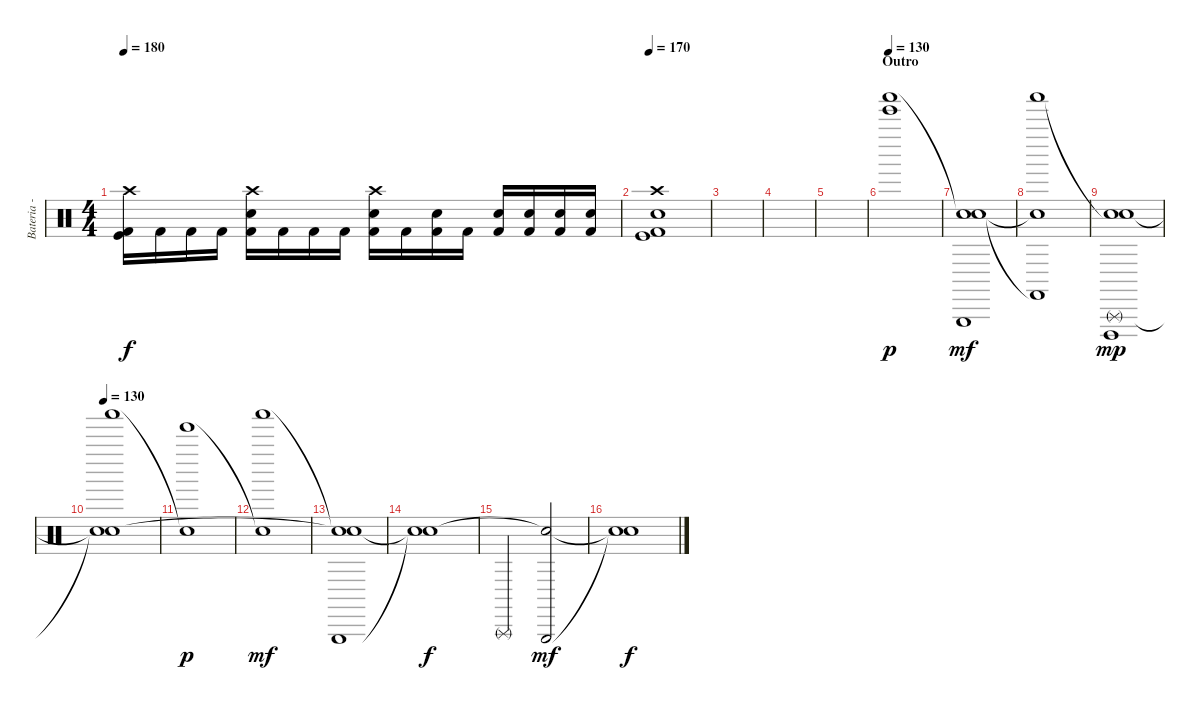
\track ("Bateria - Drums" "Bateria - ") {instrument percussion}
\staff {score}
\articulation defaults
\ts (4 4)
\tempo 180
\clef neutral
\ks c
("Crash high (hit)" "Kick (hit)" "Kick (hit) 2").16{dy f} "Kick (hit) 2".16 "Kick (hit) 2".16 "Kick (hit) 2".16 ("Crash high (hit)" "Snare (hit) 2" "Kick (hit) 2").16 "Kick (hit) 2".16 "Kick (hit) 2".16 "Kick (hit) 2".16 ("Crash high (hit)" "Snare (hit) 2" "Kick (hit) 2").16 "Kick (hit) 2".16 ("Electric Snare (hit)" "Kick (hit) 2").16 "Kick (hit) 2".16 ("Snare (hit) 2" "Kick (hit) 2").16 ("Snare (hit) 2" "Kick (hit) 2").16 ("Snare (hit) 2" "Kick (hit) 2").16 ("Snare (hit) 2" "Kick (hit) 2").16 |
\tempo 170
("Crash high (hit)" "Snare (hit) 2" "Kick (hit)" "Kick (hit) 2").1 |
|
|
|
\section ("" "Outro")
\tempo 130
("Shaker (hit)" "Tinkle Bell (hit)").1{dy p} |
("Snare (hit)"{t} "Triangle (hit)" "Snare (hit)").1{dy mf} |
("Snare (hit)"{t} "Shaker (hit)" "Castanets (hit)"{t}).1 |
("Cuica (open)" "Snare (hit)"{t} "Triangle (rnute)" "Snare (hit)").1{dy mp} |
\tempo 130
("Shaker (hit)" "Snare (hit)"{t} "Snare (hit)"{t}).1 |
("Snare (hit)"{t} "Tinkle Bell (hit)").1{dy p} |
("Shaker (hit)" "Snare (hit)"{t}).1{dy mf} |
("Snare (hit)"{t} "Triangle (hit)" "Snare (hit)"{t}).1 |
("Snare (hit)"{t} "Snare (hit)"{t}).1{dy f} |
"Triangle (rnute)".2 ("Triangle (hit)" "Snare (hit)"{t}).2{dy mf} |
("Snare (hit)"{t} "Snare (hit)"{t}).1{dy f volume 0}
